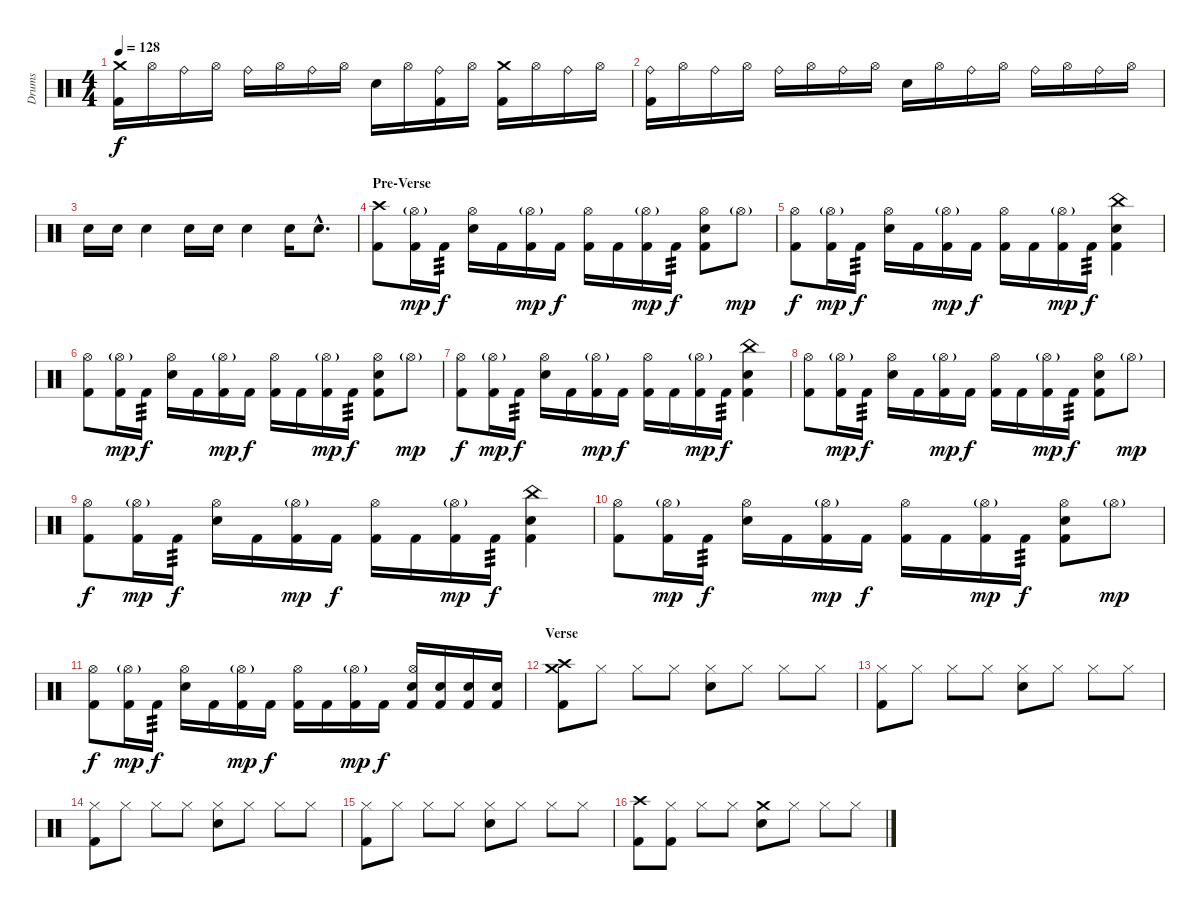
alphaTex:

\track ("Drums" "Drums") {instrument percussion}
\staff {score}
\articulation defaults
\ts (4 4)
\tempo 128
\clef neutral
\ks c
("Crash medium (hit)" "Kick (hit) 2").16{dy f} "Hi-Hat (open)".16 "Ride (bell)".16 "Hi-Hat (open)".16 "Ride (bell)".16 "Hi-Hat (open)".16 "Ride (bell)".16 "Hi-Hat (open)".16 "Snare (hit) 2".16 "Hi-Hat (open)".16 ("Ride (bell)" "Kick (hit) 2").16 "Hi-Hat (open)".16 ("Crash medium (hit)" "Kick (hit) 2").16 "Hi-Hat (open)".16 "Ride (bell)".16 "Hi-Hat (open)".16 |
("Ride (bell)" "Kick (hit) 2").16 "Hi-Hat (open)".16 "Ride (bell)".16 "Hi-Hat (open)".16 "Ride (bell)".16 "Hi-Hat (open)".16 "Ride (bell)".16 "Hi-Hat (open)".16 "Snare (hit) 2".16 "Hi-Hat (open)".16 "Ride (bell)".16 "Hi-Hat (open)".16 "Ride (bell)".16 "Hi-Hat (open)".16 "Ride (bell)".16 "Hi-Hat (open)".16 |
"Snare (hit) 2".16 "Snare (hit) 2".16 "Snare (hit) 2".4 "Snare (hit) 2".16 "Snare (hit) 2".16 "Snare (hit) 2".4 "Snare (hit) 2".16 "Snare (hit) 2"{hac}.8{d} |
\section ("" "Pre-Verse")
("Crash high (hit)" "Kick (hit) 2").8 ("Hi-Hat (open)"{g} "Kick (hit) 2").16{dy mp} "Kick (hit) 2".16{tp 3 dy f} ("Hi-Hat (open)" "Snare (hit) 2").16 "Kick (hit) 2".16 ("Hi-Hat (open)"{g} "Kick (hit) 2").16{dy mp} "Kick (hit) 2".16{dy f} ("Hi-Hat (open)" "Kick (hit) 2").16 "Kick (hit) 2".16 ("Hi-Hat (open)"{g} "Kick (hit) 2").16{dy mp} "Kick (hit) 2".16{tp 3 dy f} ("Hi-Hat (open)" "Snare (hit) 2" "Kick (hit) 2").8 "Hi-Hat (open)"{g}.8{dy mp} |
("Hi-Hat (open)" "Kick (hit) 2").8{dy f} ("Hi-Hat (open)"{g} "Kick (hit) 2").16{dy mp} "Kick (hit) 2".16{tp 3 dy f} ("Hi-Hat (open)" "Snare (hit) 2").16 "Kick (hit) 2".16 ("Hi-Hat (open)"{g} "Kick (hit) 2").16{dy mp} "Kick (hit) 2".16{dy f} ("Hi-Hat (open)" "Kick (hit) 2").16 "Kick (hit) 2".16 ("Hi-Hat (open)"{g} "Kick (hit) 2").16{dy mp} "Kick (hit) 2".16{tp 3 dy f} ("China (hit)" "Snare (hit) 2" "Kick (hit) 2").4 |
("Hi-Hat (open)" "Kick (hit) 2").8 ("Hi-Hat (open)"{g} "Kick (hit) 2").16{dy mp} "Kick (hit) 2".16{tp 3 dy f} ("Hi-Hat (open)" "Snare (hit) 2").16 "Kick (hit) 2".16 ("Hi-Hat (open)"{g} "Kick (hit) 2").16{dy mp} "Kick (hit) 2".16{dy f} ("Hi-Hat (open)" "Kick (hit) 2").16 "Kick (hit) 2".16 ("Hi-Hat (open)"{g} "Kick (hit) 2").16{dy mp} "Kick (hit) 2".16{tp 3 dy f} ("Hi-Hat (open)" "Snare (hit) 2" "Kick (hit) 2").8 "Hi-Hat (open)"{g}.8{dy mp} |
("Hi-Hat (open)" "Kick (hit) 2").8{dy f} ("Hi-Hat (open)"{g} "Kick (hit) 2").16{dy mp} "Kick (hit) 2".16{tp 3 dy f} ("Hi-Hat (open)" "Snare (hit) 2").16 "Kick (hit) 2".16 ("Hi-Hat (open)"{g} "Kick (hit) 2").16{dy mp} "Kick (hit) 2".16{dy f} ("Hi-Hat (open)" "Kick (hit) 2").16 "Kick (hit) 2".16 ("Hi-Hat (open)"{g} "Kick (hit) 2").16{dy mp} "Kick (hit) 2".16{tp 3 dy f} ("China (hit)" "Snare (hit) 2" "Kick (hit) 2").4 |
("Hi-Hat (open)" "Kick (hit) 2").8 ("Hi-Hat (open)"{g} "Kick (hit) 2").16{dy mp} "Kick (hit) 2".16{tp 3 dy f} ("Hi-Hat (open)" "Snare (hit) 2").16 "Kick (hit) 2".16 ("Hi-Hat (open)"{g} "Kick (hit) 2").16{dy mp} "Kick (hit) 2".16{dy f} ("Hi-Hat (open)" "Kick (hit) 2").16 "Kick (hit) 2".16 ("Hi-Hat (open)"{g} "Kick (hit) 2").16{dy mp} "Kick (hit) 2".16{tp 3 dy f} ("Hi-Hat (open)" "Snare (hit) 2" "Kick (hit) 2").8 "Hi-Hat (open)"{g}.8{dy mp} |
("Hi-Hat (open)" "Kick (hit) 2").8{dy f} ("Hi-Hat (open)"{g} "Kick (hit) 2").16{dy mp} "Kick (hit) 2".16{tp 3 dy f} ("Hi-Hat (open)" "Snare (hit) 2").16 "Kick (hit) 2".16 ("Hi-Hat (open)"{g} "Kick (hit) 2").16{dy mp} "Kick (hit) 2".16{dy f} ("Hi-Hat (open)" "Kick (hit) 2").16 "Kick (hit) 2".16 ("Hi-Hat (open)"{g} "Kick (hit) 2").16{dy mp} "Kick (hit) 2".16{tp 3 dy f} ("China (hit)" "Snare (hit) 2" "Kick (hit) 2").4 |
("Hi-Hat (open)" "Kick (hit) 2").8 ("Hi-Hat (open)"{g} "Kick (hit) 2").16{dy mp} "Kick (hit) 2".16{tp 3 dy f} ("Hi-Hat (open)" "Snare (hit) 2").16 "Kick (hit) 2".16 ("Hi-Hat (open)"{g} "Kick (hit) 2").16{dy mp} "Kick (hit) 2".16{dy f} ("Hi-Hat (open)" "Kick (hit) 2").16 "Kick (hit) 2".16 ("Hi-Hat (open)"{g} "Kick (hit) 2").16{dy mp} "Kick (hit) 2".16{tp 3 dy f} ("Hi-Hat (open)" "Snare (hit) 2" "Kick (hit) 2").8 "Hi-Hat (open)"{g}.8{dy mp} |
("Hi-Hat (open)" "Kick (hit) 2").8{dy f} ("Hi-Hat (open)"{g} "Kick (hit) 2").16{dy mp} "Kick (hit) 2".16{tp 3 dy f} ("Hi-Hat (open)" "Snare (hit) 2").16 "Kick (hit) 2".16 ("Hi-Hat (open)"{g} "Kick (hit) 2").16{dy mp} "Kick (hit) 2".16{dy f} ("Hi-Hat (open)" "Kick (hit) 2").16 "Kick (hit) 2".16 ("Hi-Hat (open)"{g} "Kick (hit) 2").16{dy mp} "Kick (hit) 2".16{dy f} ("Hi-Hat (open)" "Snare (hit) 2" "Kick (hit) 2").16 ("Snare (hit) 2" "Kick (hit) 2").16 ("Snare (hit) 2" "Kick (hit) 2").16 ("Snare (hit) 2" "Kick (hit) 2").16 |
\section ("" "Verse")
("Crash high (hit)" "Crash medium (hit)" "Kick (hit) 2").8 "Hi-Hat (closed)".8 "Hi-Hat (closed)".8 "Hi-Hat (closed)".8 ("Hi-Hat (closed)" "Snare (hit) 2").8 "Hi-Hat (closed)".8 "Hi-Hat (closed)".8 "Hi-Hat (closed)".8 |
("Hi-Hat (closed)" "Kick (hit) 2").8 "Hi-Hat (closed)".8 "Hi-Hat (closed)".8 "Hi-Hat (closed)".8 ("Hi-Hat (closed)" "Snare (hit) 2").8 "Hi-Hat (closed)".8 "Hi-Hat (closed)".8 "Hi-Hat (closed)".8 |
("Hi-Hat (closed)" "Kick (hit) 2").8 "Hi-Hat (closed)".8 "Hi-Hat (closed)".8 "Hi-Hat (closed)".8 ("Hi-Hat (closed)" "Snare (hit) 2").8 "Hi-Hat (closed)".8 "Hi-Hat (closed)".8 "Hi-Hat (closed)".8 |
("Hi-Hat (closed)" "Kick (hit) 2").8 "Hi-Hat (closed)".8 "Hi-Hat (closed)".8 "Hi-Hat (closed)".8 ("Hi-Hat (closed)" "Snare (hit) 2").8 "Hi-Hat (closed)".8 "Hi-Hat (closed)".8 "Hi-Hat (closed)".8 |
("Crash high (hit)" "Kick (hit) 2").8 ("Hi-Hat (closed)" "Kick (hit) 2").8 "Hi-Hat (closed)".8 "Hi-Hat (closed)".8 ("Crash medium (hit)" "Snare (hit) 2").8 "Hi-Hat (closed)".8 "Hi-Hat (closed)".8 "Hi-Hat (closed)".8
